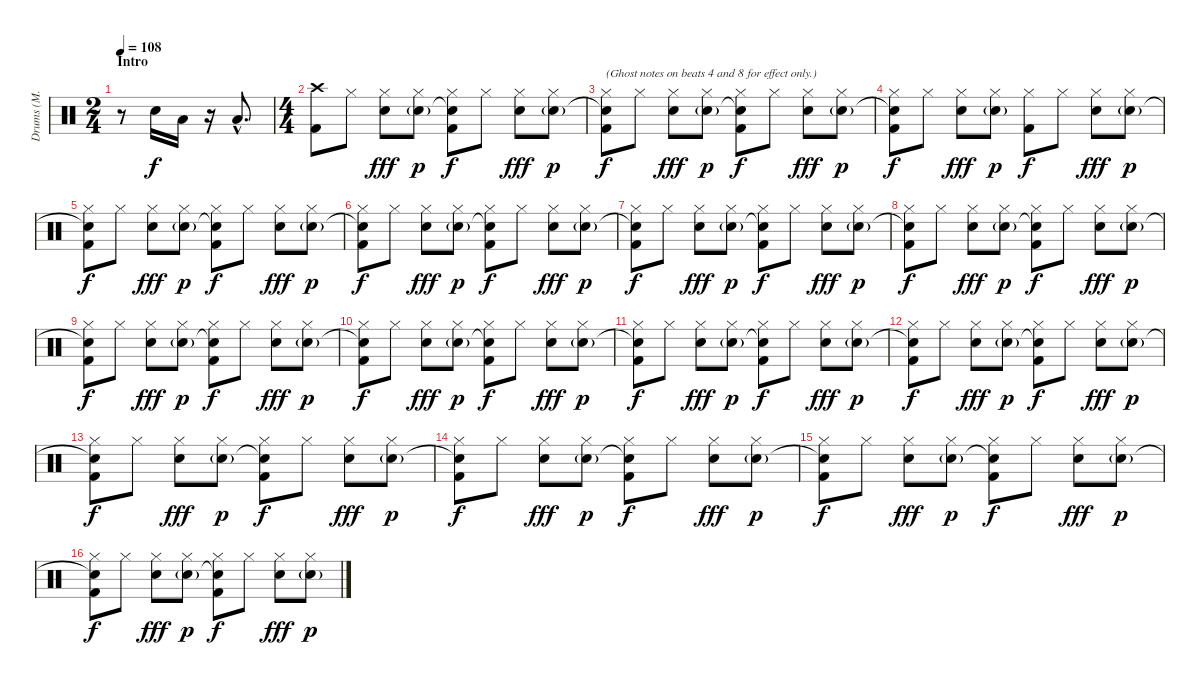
\track ("Drums (M. Chambers)" "Drums (M. ") {instrument percussion}
\staff {score}
\articulation defaults
\ts (2 4)
\section ("" "Intro")
\tempo 108
\clef neutral
\ks c
r.8{dy f} "Electric Snare (hit)".16 "Low Tom (hit)".16 r.16 "Low Tom (hit)"{hac}.8{d} |
\ts (4 4)
("Crash high (hit)" "Kick (hit) 2").8 "Hi-Hat (closed)".8 ("Hi-Hat (closed)" "Electric Snare (hit)").8{dy fff} ("Hi-Hat (closed)" "Electric Snare (hit)"{g}).8{dy p} ("Hi-Hat (closed)" "Snare (hit)"{t} "Kick (hit) 2").8{dy f} "Hi-Hat (closed)".8 ("Hi-Hat (closed)" "Electric Snare (hit)").8{dy fff} ("Hi-Hat (closed)" "Electric Snare (hit)"{g}).8{dy p} |
("Hi-Hat (closed)" "Snare (hit)"{t} "Kick (hit) 2").8{txt "(Ghost notes on beats 4 and 8 for effect only.)" dy f} "Hi-Hat (closed)".8 ("Hi-Hat (closed)" "Electric Snare (hit)").8{dy fff} ("Hi-Hat (closed)" "Electric Snare (hit)"{g}).8{dy p} ("Hi-Hat (closed)" "Snare (hit)"{t} "Kick (hit) 2").8{dy f} "Hi-Hat (closed)".8 ("Hi-Hat (closed)" "Electric Snare (hit)").8{dy fff} ("Hi-Hat (closed)" "Electric Snare (hit)"{g}).8{dy p} |
("Hi-Hat (closed)" "Snare (hit)"{t} "Kick (hit) 2").8{dy f} "Hi-Hat (closed)".8 ("Hi-Hat (closed)" "Electric Snare (hit)").8{dy fff} ("Hi-Hat (closed)" "Electric Snare (hit)"{g}).8{dy p} ("Hi-Hat (closed)" "Kick (hit) 2").8{dy f} "Hi-Hat (closed)".8 ("Hi-Hat (closed)" "Electric Snare (hit)").8{dy fff} ("Hi-Hat (closed)" "Electric Snare (hit)"{g}).8{dy p} |
("Hi-Hat (closed)" "Snare (hit)"{t} "Kick (hit) 2").8{dy f} "Hi-Hat (closed)".8 ("Hi-Hat (closed)" "Electric Snare (hit)").8{dy fff} ("Hi-Hat (closed)" "Electric Snare (hit)"{g}).8{dy p} ("Hi-Hat (closed)" "Snare (hit)"{t} "Kick (hit) 2").8{dy f} "Hi-Hat (closed)".8 ("Hi-Hat (closed)" "Electric Snare (hit)").8{dy fff} ("Hi-Hat (closed)" "Electric Snare (hit)"{g}).8{dy p} |
("Hi-Hat (closed)" "Snare (hit)"{t} "Kick (hit) 2").8{dy f} "Hi-Hat (closed)".8 ("Hi-Hat (closed)" "Electric Snare (hit)").8{dy fff} ("Hi-Hat (closed)" "Electric Snare (hit)"{g}).8{dy p} ("Hi-Hat (closed)" "Snare (hit)"{t} "Kick (hit) 2").8{dy f} "Hi-Hat (closed)".8 ("Hi-Hat (closed)" "Electric Snare (hit)").8{dy fff} ("Hi-Hat (closed)" "Electric Snare (hit)"{g}).8{dy p} |
("Hi-Hat (closed)" "Snare (hit)"{t} "Kick (hit) 2").8{dy f} "Hi-Hat (closed)".8 ("Hi-Hat (closed)" "Electric Snare (hit)").8{dy fff} ("Hi-Hat (closed)" "Electric Snare (hit)"{g}).8{dy p} ("Hi-Hat (closed)" "Snare (hit)"{t} "Kick (hit) 2").8{dy f} "Hi-Hat (closed)".8 ("Hi-Hat (closed)" "Electric Snare (hit)").8{dy fff} ("Hi-Hat (closed)" "Electric Snare (hit)"{g}).8{dy p} |
("Hi-Hat (closed)" "Snare (hit)"{t} "Kick (hit) 2").8{dy f} "Hi-Hat (closed)".8 ("Hi-Hat (closed)" "Electric Snare (hit)").8{dy fff} ("Hi-Hat (closed)" "Electric Snare (hit)"{g}).8{dy p} ("Hi-Hat (closed)" "Snare (hit)"{t} "Kick (hit) 2").8{dy f} "Hi-Hat (closed)".8 ("Hi-Hat (closed)" "Electric Snare (hit)").8{dy fff} ("Hi-Hat (closed)" "Electric Snare (hit)"{g}).8{dy p} |
("Hi-Hat (closed)" "Snare (hit)"{t} "Kick (hit) 2").8{dy f} "Hi-Hat (closed)".8 ("Hi-Hat (closed)" "Electric Snare (hit)").8{dy fff} ("Hi-Hat (closed)" "Electric Snare (hit)"{g}).8{dy p} ("Hi-Hat (closed)" "Snare (hit)"{t} "Kick (hit) 2").8{dy f} "Hi-Hat (closed)".8 ("Hi-Hat (closed)" "Electric Snare (hit)").8{dy fff} ("Hi-Hat (closed)" "Electric Snare (hit)"{g}).8{dy p} |
("Hi-Hat (closed)" "Snare (hit)"{t} "Kick (hit) 2").8{dy f} "Hi-Hat (closed)".8 ("Hi-Hat (closed)" "Electric Snare (hit)").8{dy fff} ("Hi-Hat (closed)" "Electric Snare (hit)"{g}).8{dy p} ("Hi-Hat (closed)" "Snare (hit)"{t} "Kick (hit) 2").8{dy f} "Hi-Hat (closed)".8 ("Hi-Hat (closed)" "Electric Snare (hit)").8{dy fff} ("Hi-Hat (closed)" "Electric Snare (hit)"{g}).8{dy p} |
("Hi-Hat (closed)" "Snare (hit)"{t} "Kick (hit) 2").8{dy f} "Hi-Hat (closed)".8 ("Hi-Hat (closed)" "Electric Snare (hit)").8{dy fff} ("Hi-Hat (closed)" "Electric Snare (hit)"{g}).8{dy p} ("Hi-Hat (closed)" "Snare (hit)"{t} "Kick (hit) 2").8{dy f} "Hi-Hat (closed)".8 ("Hi-Hat (closed)" "Electric Snare (hit)").8{dy fff} ("Hi-Hat (closed)" "Electric Snare (hit)"{g}).8{dy p} |
("Hi-Hat (closed)" "Snare (hit)"{t} "Kick (hit) 2").8{dy f} "Hi-Hat (closed)".8 ("Hi-Hat (closed)" "Electric Snare (hit)").8{dy fff} ("Hi-Hat (closed)" "Electric Snare (hit)"{g}).8{dy p} ("Hi-Hat (closed)" "Snare (hit)"{t} "Kick (hit) 2").8{dy f} "Hi-Hat (closed)".8 ("Hi-Hat (closed)" "Electric Snare (hit)").8{dy fff} ("Hi-Hat (closed)" "Electric Snare (hit)"{g}).8{dy p} |
("Hi-Hat (closed)" "Snare (hit)"{t} "Kick (hit) 2").8{dy f} "Hi-Hat (closed)".8 ("Hi-Hat (closed)" "Electric Snare (hit)").8{dy fff} ("Hi-Hat (closed)" "Electric Snare (hit)"{g}).8{dy p} ("Hi-Hat (closed)" "Snare (hit)"{t} "Kick (hit) 2").8{dy f} "Hi-Hat (closed)".8 ("Hi-Hat (closed)" "Electric Snare (hit)").8{dy fff} ("Hi-Hat (closed)" "Electric Snare (hit)"{g}).8{dy p} |
("Hi-Hat (closed)" "Snare (hit)"{t} "Kick (hit) 2").8{dy f} "Hi-Hat (closed)".8 ("Hi-Hat (closed)" "Electric Snare (hit)").8{dy fff} ("Hi-Hat (closed)" "Electric Snare (hit)"{g}).8{dy p} ("Hi-Hat (closed)" "Snare (hit)"{t} "Kick (hit) 2").8{dy f} "Hi-Hat (closed)".8 ("Hi-Hat (closed)" "Electric Snare (hit)").8{dy fff} ("Hi-Hat (closed)" "Electric Snare (hit)"{g}).8{dy p} |
("Hi-Hat (closed)" "Snare (hit)"{t} "Kick (hit) 2").8{dy f} "Hi-Hat (closed)".8 ("Hi-Hat (closed)" "Electric Snare (hit)").8{dy fff} ("Hi-Hat (closed)" "Electric Snare (hit)"{g}).8{dy p} ("Hi-Hat (closed)" "Snare (hit)"{t} "Kick (hit) 2").8{dy f} "Hi-Hat (closed)".8 ("Hi-Hat (closed)" "Electric Snare (hit)").8{dy fff} ("Hi-Hat (closed)" "Electric Snare (hit)"{g}).8{dy p} |
("Hi-Hat (closed)" "Snare (hit)"{t} "Kick (hit) 2").8{dy f} "Hi-Hat (closed)".8 ("Hi-Hat (closed)" "Electric Snare (hit)").8{dy fff} ("Hi-Hat (closed)" "Electric Snare (hit)"{g}).8{dy p} ("Hi-Hat (closed)" "Snare (hit)"{t} "Kick (hit) 2").8{dy f} "Hi-Hat (closed)".8 ("Hi-Hat (closed)" "Electric Snare (hit)").8{dy fff} ("Hi-Hat (closed)" "Electric Snare (hit)"{g}).8{dy p}
